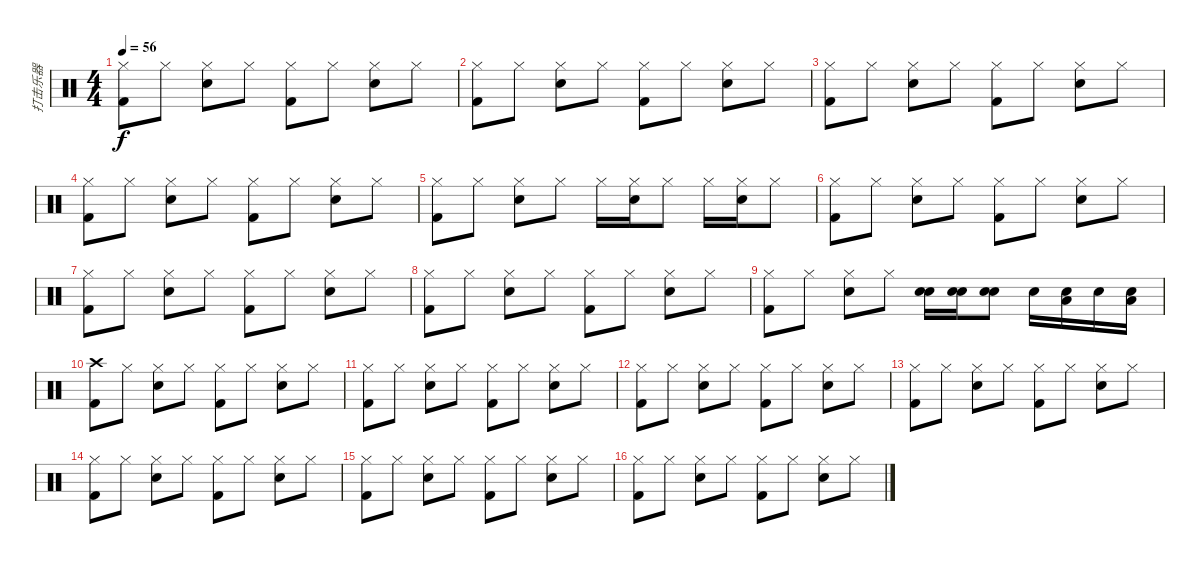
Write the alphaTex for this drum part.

\track ("打击乐器" "打击乐器") {instrument percussion}
\staff {score}
\articulation defaults
\ts (4 4)
\tempo 56
\clef neutral
\ks c
("Hi-Hat (closed)" "Kick (hit) 2").8{dy f} "Hi-Hat (closed)".8 ("Hi-Hat (closed)" "Snare (hit) 2").8 "Hi-Hat (closed)".8 ("Hi-Hat (closed)" "Kick (hit) 2").8 "Hi-Hat (closed)".8 ("Hi-Hat (closed)" "Snare (hit) 2").8 "Hi-Hat (closed)".8 |
("Hi-Hat (closed)" "Kick (hit) 2").8 "Hi-Hat (closed)".8 ("Hi-Hat (closed)" "Snare (hit) 2").8 "Hi-Hat (closed)".8 ("Hi-Hat (closed)" "Kick (hit) 2").8 "Hi-Hat (closed)".8 ("Hi-Hat (closed)" "Snare (hit) 2").8 "Hi-Hat (closed)".8 |
("Hi-Hat (closed)" "Kick (hit) 2").8 "Hi-Hat (closed)".8 ("Hi-Hat (closed)" "Snare (hit) 2").8 "Hi-Hat (closed)".8 ("Hi-Hat (closed)" "Kick (hit) 2").8 "Hi-Hat (closed)".8 ("Hi-Hat (closed)" "Snare (hit) 2").8 "Hi-Hat (closed)".8 |
("Hi-Hat (closed)" "Kick (hit) 2").8 "Hi-Hat (closed)".8 ("Hi-Hat (closed)" "Snare (hit) 2").8 "Hi-Hat (closed)".8 ("Hi-Hat (closed)" "Kick (hit) 2").8 "Hi-Hat (closed)".8 ("Hi-Hat (closed)" "Snare (hit) 2").8 "Hi-Hat (closed)".8 |
("Hi-Hat (closed)" "Kick (hit) 2").8 "Hi-Hat (closed)".8 ("Hi-Hat (closed)" "Snare (hit) 2").8 "Hi-Hat (closed)".8 "Hi-Hat (closed)".16 ("Hi-Hat (closed)" "Snare (hit) 2").16 "Hi-Hat (closed)".8 "Hi-Hat (closed)".16 ("Hi-Hat (closed)" "Snare (hit) 2").16 "Hi-Hat (closed)".8 |
("Hi-Hat (closed)" "Kick (hit) 2").8 "Hi-Hat (closed)".8 ("Hi-Hat (closed)" "Snare (hit) 2").8 "Hi-Hat (closed)".8 ("Hi-Hat (closed)" "Kick (hit) 2").8 "Hi-Hat (closed)".8 ("Hi-Hat (closed)" "Snare (hit) 2").8 "Hi-Hat (closed)".8 |
("Hi-Hat (closed)" "Kick (hit) 2").8 "Hi-Hat (closed)".8 ("Hi-Hat (closed)" "Snare (hit) 2").8 "Hi-Hat (closed)".8 ("Hi-Hat (closed)" "Kick (hit) 2").8 "Hi-Hat (closed)".8 ("Hi-Hat (closed)" "Snare (hit) 2").8 "Hi-Hat (closed)".8 |
("Hi-Hat (closed)" "Kick (hit) 2").8 "Hi-Hat (closed)".8 ("Hi-Hat (closed)" "Snare (hit) 2").8 "Hi-Hat (closed)".8 ("Hi-Hat (closed)" "Kick (hit) 2").8 "Hi-Hat (closed)".8 ("Hi-Hat (closed)" "Snare (hit) 2").8 "Hi-Hat (closed)".8 |
("Hi-Hat (closed)" "Kick (hit) 2").8 "Hi-Hat (closed)".8 ("Hi-Hat (closed)" "Snare (hit) 2").8 "Hi-Hat (closed)".8 ("Electric Snare (hit)" "Snare (hit) 2").16 ("Electric Snare (hit)" "Snare (hit) 2").16 ("Electric Snare (hit)" "Snare (hit) 2").8 "Snare (hit) 2".16 ("Snare (hit) 2" "Low Tom (hit)").16 "Snare (hit) 2".16 ("Snare (hit) 2" "Low Tom (hit)").16 |
("Crash high (hit)" "Kick (hit) 2").8 "Hi-Hat (closed)".8 ("Hi-Hat (closed)" "Snare (hit) 2").8 "Hi-Hat (closed)".8 ("Hi-Hat (closed)" "Kick (hit) 2").8 "Hi-Hat (closed)".8 ("Hi-Hat (closed)" "Snare (hit) 2").8 "Hi-Hat (closed)".8 |
("Hi-Hat (closed)" "Kick (hit) 2").8 "Hi-Hat (closed)".8 ("Hi-Hat (closed)" "Snare (hit) 2").8 "Hi-Hat (closed)".8 ("Hi-Hat (closed)" "Kick (hit) 2").8 "Hi-Hat (closed)".8 ("Hi-Hat (closed)" "Snare (hit) 2").8 "Hi-Hat (closed)".8 |
("Hi-Hat (closed)" "Kick (hit) 2").8 "Hi-Hat (closed)".8 ("Hi-Hat (closed)" "Snare (hit) 2").8 "Hi-Hat (closed)".8 ("Hi-Hat (closed)" "Kick (hit) 2").8 "Hi-Hat (closed)".8 ("Hi-Hat (closed)" "Snare (hit) 2").8 "Hi-Hat (closed)".8 |
("Hi-Hat (closed)" "Kick (hit) 2").8 "Hi-Hat (closed)".8 ("Hi-Hat (closed)" "Snare (hit) 2").8 "Hi-Hat (closed)".8 ("Hi-Hat (closed)" "Kick (hit) 2").8 "Hi-Hat (closed)".8 ("Hi-Hat (closed)" "Snare (hit) 2").8 "Hi-Hat (closed)".8 |
("Hi-Hat (closed)" "Kick (hit) 2").8 "Hi-Hat (closed)".8 ("Hi-Hat (closed)" "Snare (hit) 2").8 "Hi-Hat (closed)".8 ("Hi-Hat (closed)" "Kick (hit) 2").8 "Hi-Hat (closed)".8 ("Hi-Hat (closed)" "Snare (hit) 2").8 "Hi-Hat (closed)".8 |
("Hi-Hat (closed)" "Kick (hit) 2").8 "Hi-Hat (closed)".8 ("Hi-Hat (closed)" "Snare (hit) 2").8 "Hi-Hat (closed)".8 ("Hi-Hat (closed)" "Kick (hit) 2").8 "Hi-Hat (closed)".8 ("Hi-Hat (closed)" "Snare (hit) 2").8 "Hi-Hat (closed)".8 |
("Hi-Hat (closed)" "Kick (hit) 2").8 "Hi-Hat (closed)".8 ("Hi-Hat (closed)" "Snare (hit) 2").8 "Hi-Hat (closed)".8 ("Hi-Hat (closed)" "Kick (hit) 2").8 "Hi-Hat (closed)".8 ("Hi-Hat (closed)" "Snare (hit) 2").8 "Hi-Hat (closed)".8
